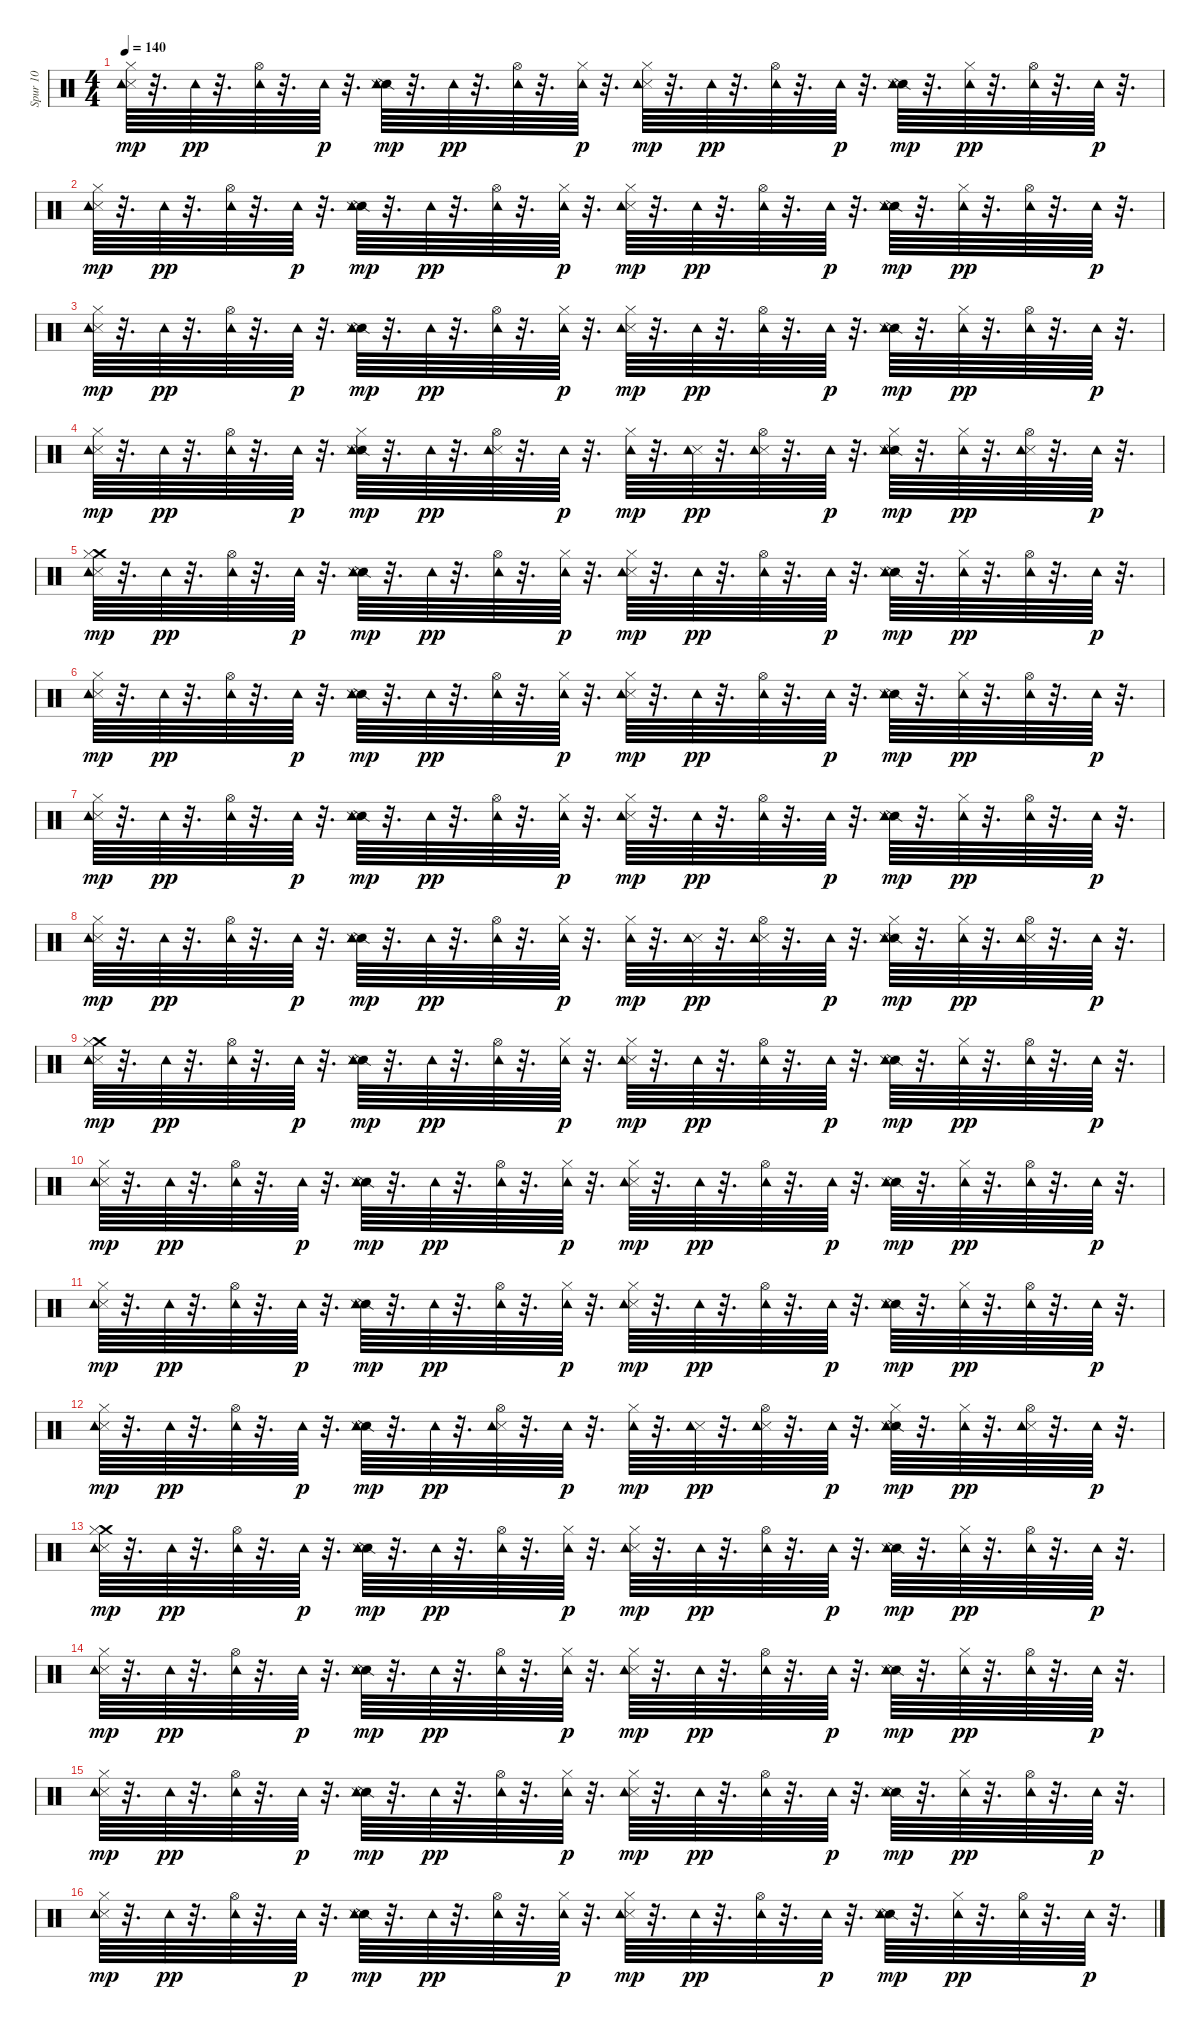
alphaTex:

\track ("Spur 10" "Spur 10") {instrument percussion}
\staff {score}
\articulation defaults
\ts (4 4)
\tempo 140
\clef neutral
\ks c
("Metronome (hit)" "Hi-Hat (closed)" "Tambourine (hit)").64{dy mp} r.32{d} "Tambourine (hit)".64{dy pp} r.32{d} ("Hi-Hat (open)" "Tambourine (hit)").64 r.32{d} "Tambourine (hit)".64{dy p} r.32{d} ("Snare (side stick) 2" "Metronome (hit)" "Tambourine (hit)").64{dy mp} r.32{d} "Tambourine (hit)".64{dy pp} r.32{d} ("Hi-Hat (open)" "Tambourine (hit)").64 r.32{d} ("Hi-Hat (closed)" "Tambourine (hit)").64{dy p} r.32{d} ("Metronome (hit)" "Hi-Hat (closed)" "Tambourine (hit)").64{dy mp} r.32{d} "Tambourine (hit)".64{dy pp} r.32{d} ("Hi-Hat (open)" "Tambourine (hit)").64 r.32{d} "Tambourine (hit)".64{dy p} r.32{d} ("Snare (side stick) 2" "Metronome (hit)" "Tambourine (hit)").64{dy mp} r.32{d} ("Hi-Hat (closed)" "Tambourine (hit)").64{dy pp} r.32{d} ("Hi-Hat (open)" "Tambourine (hit)").64 r.32{d} "Tambourine (hit)".64{dy p} r.32{d} |
("Metronome (hit)" "Hi-Hat (closed)" "Tambourine (hit)").64{dy mp} r.32{d} "Tambourine (hit)".64{dy pp} r.32{d} ("Hi-Hat (open)" "Tambourine (hit)").64 r.32{d} "Tambourine (hit)".64{dy p} r.32{d} ("Snare (side stick) 2" "Metronome (hit)" "Tambourine (hit)").64{dy mp} r.32{d} "Tambourine (hit)".64{dy pp} r.32{d} ("Hi-Hat (open)" "Tambourine (hit)").64 r.32{d} ("Hi-Hat (closed)" "Tambourine (hit)").64{dy p} r.32{d} ("Metronome (hit)" "Hi-Hat (closed)" "Tambourine (hit)").64{dy mp} r.32{d} "Tambourine (hit)".64{dy pp} r.32{d} ("Hi-Hat (open)" "Tambourine (hit)").64 r.32{d} "Tambourine (hit)".64{dy p} r.32{d} ("Snare (side stick) 2" "Metronome (hit)" "Tambourine (hit)").64{dy mp} r.32{d} ("Hi-Hat (closed)" "Tambourine (hit)").64{dy pp} r.32{d} ("Hi-Hat (open)" "Tambourine (hit)").64 r.32{d} "Tambourine (hit)".64{dy p} r.32{d} |
("Metronome (hit)" "Hi-Hat (closed)" "Tambourine (hit)").64{dy mp} r.32{d} "Tambourine (hit)".64{dy pp} r.32{d} ("Hi-Hat (open)" "Tambourine (hit)").64 r.32{d} "Tambourine (hit)".64{dy p} r.32{d} ("Snare (side stick) 2" "Metronome (hit)" "Tambourine (hit)").64{dy mp} r.32{d} "Tambourine (hit)".64{dy pp} r.32{d} ("Hi-Hat (open)" "Tambourine (hit)").64 r.32{d} ("Hi-Hat (closed)" "Tambourine (hit)").64{dy p} r.32{d} ("Metronome (hit)" "Hi-Hat (closed)" "Tambourine (hit)").64{dy mp} r.32{d} "Tambourine (hit)".64{dy pp} r.32{d} ("Hi-Hat (open)" "Tambourine (hit)").64 r.32{d} "Tambourine (hit)".64{dy p} r.32{d} ("Snare (side stick) 2" "Metronome (hit)" "Tambourine (hit)").64{dy mp} r.32{d} ("Hi-Hat (closed)" "Tambourine (hit)").64{dy pp} r.32{d} ("Hi-Hat (open)" "Tambourine (hit)").64 r.32{d} "Tambourine (hit)".64{dy p} r.32{d} |
("Metronome (hit)" "Hi-Hat (closed)" "Tambourine (hit)").64{dy mp} r.32{d} "Tambourine (hit)".64{dy pp} r.32{d} ("Hi-Hat (open)" "Tambourine (hit)").64 r.32{d} "Tambourine (hit)".64{dy p} r.32{d} ("Snare (side stick) 2" "Metronome (hit)" "Hi-Hat (closed)" "Tambourine (hit)").64{dy mp} r.32{d} "Tambourine (hit)".64{dy pp} r.32{d} ("Metronome (hit)" "Hi-Hat (open)" "Tambourine (hit)").64 r.32{d} "Tambourine (hit)".64{dy p} r.32{d} ("Hi-Hat (closed)" "Tambourine (hit)").64{dy mp} r.32{d} ("Metronome (hit)" "Tambourine (hit)").64{dy pp} r.32{d} ("Metronome (hit)" "Hi-Hat (open)" "Tambourine (hit)").64 r.32{d} "Tambourine (hit)".64{dy p} r.32{d} ("Snare (side stick) 2" "Metronome (hit)" "Hi-Hat (closed)" "Tambourine (hit)").64{dy mp} r.32{d} ("Hi-Hat (closed)" "Tambourine (hit)").64{dy pp} r.32{d} ("Metronome (hit)" "Hi-Hat (open)" "Tambourine (hit)").64 r.32{d} "Tambourine (hit)".64{dy p} r.32{d} |
("Crash medium (hit)" "Metronome (hit)" "Hi-Hat (closed)" "Tambourine (hit)").64{dy mp} r.32{d} "Tambourine (hit)".64{dy pp} r.32{d} ("Hi-Hat (open)" "Tambourine (hit)").64 r.32{d} "Tambourine (hit)".64{dy p} r.32{d} ("Snare (side stick) 2" "Metronome (hit)" "Tambourine (hit)").64{dy mp} r.32{d} "Tambourine (hit)".64{dy pp} r.32{d} ("Hi-Hat (open)" "Tambourine (hit)").64 r.32{d} ("Hi-Hat (closed)" "Tambourine (hit)").64{dy p} r.32{d} ("Metronome (hit)" "Hi-Hat (closed)" "Tambourine (hit)").64{dy mp} r.32{d} "Tambourine (hit)".64{dy pp} r.32{d} ("Hi-Hat (open)" "Tambourine (hit)").64 r.32{d} "Tambourine (hit)".64{dy p} r.32{d} ("Snare (side stick) 2" "Metronome (hit)" "Tambourine (hit)").64{dy mp} r.32{d} ("Hi-Hat (closed)" "Tambourine (hit)").64{dy pp} r.32{d} ("Hi-Hat (open)" "Tambourine (hit)").64 r.32{d} "Tambourine (hit)".64{dy p} r.32{d} |
("Metronome (hit)" "Hi-Hat (closed)" "Tambourine (hit)").64{dy mp} r.32{d} "Tambourine (hit)".64{dy pp} r.32{d} ("Hi-Hat (open)" "Tambourine (hit)").64 r.32{d} "Tambourine (hit)".64{dy p} r.32{d} ("Snare (side stick) 2" "Metronome (hit)" "Tambourine (hit)").64{dy mp} r.32{d} "Tambourine (hit)".64{dy pp} r.32{d} ("Hi-Hat (open)" "Tambourine (hit)").64 r.32{d} ("Hi-Hat (closed)" "Tambourine (hit)").64{dy p} r.32{d} ("Metronome (hit)" "Hi-Hat (closed)" "Tambourine (hit)").64{dy mp} r.32{d} "Tambourine (hit)".64{dy pp} r.32{d} ("Hi-Hat (open)" "Tambourine (hit)").64 r.32{d} "Tambourine (hit)".64{dy p} r.32{d} ("Snare (side stick) 2" "Metronome (hit)" "Tambourine (hit)").64{dy mp} r.32{d} ("Hi-Hat (closed)" "Tambourine (hit)").64{dy pp} r.32{d} ("Hi-Hat (open)" "Tambourine (hit)").64 r.32{d} "Tambourine (hit)".64{dy p} r.32{d} |
("Metronome (hit)" "Hi-Hat (closed)" "Tambourine (hit)").64{dy mp} r.32{d} "Tambourine (hit)".64{dy pp} r.32{d} ("Hi-Hat (open)" "Tambourine (hit)").64 r.32{d} "Tambourine (hit)".64{dy p} r.32{d} ("Snare (side stick) 2" "Metronome (hit)" "Tambourine (hit)").64{dy mp} r.32{d} "Tambourine (hit)".64{dy pp} r.32{d} ("Hi-Hat (open)" "Tambourine (hit)").64 r.32{d} ("Hi-Hat (closed)" "Tambourine (hit)").64{dy p} r.32{d} ("Metronome (hit)" "Hi-Hat (closed)" "Tambourine (hit)").64{dy mp} r.32{d} "Tambourine (hit)".64{dy pp} r.32{d} ("Hi-Hat (open)" "Tambourine (hit)").64 r.32{d} "Tambourine (hit)".64{dy p} r.32{d} ("Snare (side stick) 2" "Metronome (hit)" "Tambourine (hit)").64{dy mp} r.32{d} ("Hi-Hat (closed)" "Tambourine (hit)").64{dy pp} r.32{d} ("Hi-Hat (open)" "Tambourine (hit)").64 r.32{d} "Tambourine (hit)".64{dy p} r.32{d} |
("Metronome (hit)" "Hi-Hat (closed)" "Tambourine (hit)").64{dy mp} r.32{d} "Tambourine (hit)".64{dy pp} r.32{d} ("Hi-Hat (open)" "Tambourine (hit)").64 r.32{d} "Tambourine (hit)".64{dy p} r.32{d} ("Snare (side stick) 2" "Metronome (hit)" "Tambourine (hit)").64{dy mp} r.32{d} "Tambourine (hit)".64{dy pp} r.32{d} ("Hi-Hat (open)" "Tambourine (hit)").64 r.32{d} ("Hi-Hat (closed)" "Tambourine (hit)").64{dy p} r.32{d} ("Hi-Hat (closed)" "Tambourine (hit)").64{dy mp} r.32{d} ("Metronome (hit)" "Tambourine (hit)").64{dy pp} r.32{d} ("Metronome (hit)" "Hi-Hat (open)" "Tambourine (hit)").64 r.32{d} "Tambourine (hit)".64{dy p} r.32{d} ("Snare (side stick) 2" "Metronome (hit)" "Hi-Hat (closed)" "Tambourine (hit)").64{dy mp} r.32{d} ("Hi-Hat (closed)" "Tambourine (hit)").64{dy pp} r.32{d} ("Metronome (hit)" "Hi-Hat (open)" "Tambourine (hit)").64 r.32{d} "Tambourine (hit)".64{dy p} r.32{d} |
("Crash medium (hit)" "Metronome (hit)" "Hi-Hat (closed)" "Tambourine (hit)").64{dy mp} r.32{d} "Tambourine (hit)".64{dy pp} r.32{d} ("Hi-Hat (open)" "Tambourine (hit)").64 r.32{d} "Tambourine (hit)".64{dy p} r.32{d} ("Snare (side stick) 2" "Metronome (hit)" "Tambourine (hit)").64{dy mp} r.32{d} "Tambourine (hit)".64{dy pp} r.32{d} ("Hi-Hat (open)" "Tambourine (hit)").64 r.32{d} ("Hi-Hat (closed)" "Tambourine (hit)").64{dy p} r.32{d} ("Metronome (hit)" "Hi-Hat (closed)" "Tambourine (hit)").64{dy mp} r.32{d} "Tambourine (hit)".64{dy pp} r.32{d} ("Hi-Hat (open)" "Tambourine (hit)").64 r.32{d} "Tambourine (hit)".64{dy p} r.32{d} ("Snare (side stick) 2" "Metronome (hit)" "Tambourine (hit)").64{dy mp} r.32{d} ("Hi-Hat (closed)" "Tambourine (hit)").64{dy pp} r.32{d} ("Hi-Hat (open)" "Tambourine (hit)").64 r.32{d} "Tambourine (hit)".64{dy p} r.32{d} |
("Metronome (hit)" "Hi-Hat (closed)" "Tambourine (hit)").64{dy mp} r.32{d} "Tambourine (hit)".64{dy pp} r.32{d} ("Hi-Hat (open)" "Tambourine (hit)").64 r.32{d} "Tambourine (hit)".64{dy p} r.32{d} ("Snare (side stick) 2" "Metronome (hit)" "Tambourine (hit)").64{dy mp} r.32{d} "Tambourine (hit)".64{dy pp} r.32{d} ("Hi-Hat (open)" "Tambourine (hit)").64 r.32{d} ("Hi-Hat (closed)" "Tambourine (hit)").64{dy p} r.32{d} ("Metronome (hit)" "Hi-Hat (closed)" "Tambourine (hit)").64{dy mp} r.32{d} "Tambourine (hit)".64{dy pp} r.32{d} ("Hi-Hat (open)" "Tambourine (hit)").64 r.32{d} "Tambourine (hit)".64{dy p} r.32{d} ("Snare (side stick) 2" "Metronome (hit)" "Tambourine (hit)").64{dy mp} r.32{d} ("Hi-Hat (closed)" "Tambourine (hit)").64{dy pp} r.32{d} ("Hi-Hat (open)" "Tambourine (hit)").64 r.32{d} "Tambourine (hit)".64{dy p} r.32{d} |
("Metronome (hit)" "Hi-Hat (closed)" "Tambourine (hit)").64{dy mp} r.32{d} "Tambourine (hit)".64{dy pp} r.32{d} ("Hi-Hat (open)" "Tambourine (hit)").64 r.32{d} "Tambourine (hit)".64{dy p} r.32{d} ("Snare (side stick) 2" "Metronome (hit)" "Tambourine (hit)").64{dy mp} r.32{d} "Tambourine (hit)".64{dy pp} r.32{d} ("Hi-Hat (open)" "Tambourine (hit)").64 r.32{d} ("Hi-Hat (closed)" "Tambourine (hit)").64{dy p} r.32{d} ("Metronome (hit)" "Hi-Hat (closed)" "Tambourine (hit)").64{dy mp} r.32{d} "Tambourine (hit)".64{dy pp} r.32{d} ("Hi-Hat (open)" "Tambourine (hit)").64 r.32{d} "Tambourine (hit)".64{dy p} r.32{d} ("Snare (side stick) 2" "Metronome (hit)" "Tambourine (hit)").64{dy mp} r.32{d} ("Hi-Hat (closed)" "Tambourine (hit)").64{dy pp} r.32{d} ("Hi-Hat (open)" "Tambourine (hit)").64 r.32{d} "Tambourine (hit)".64{dy p} r.32{d} |
("Metronome (hit)" "Hi-Hat (closed)" "Tambourine (hit)").64{dy mp} r.32{d} "Tambourine (hit)".64{dy pp} r.32{d} ("Hi-Hat (open)" "Tambourine (hit)").64 r.32{d} "Tambourine (hit)".64{dy p} r.32{d} ("Snare (side stick) 2" "Metronome (hit)" "Tambourine (hit)").64{dy mp} r.32{d} "Tambourine (hit)".64{dy pp} r.32{d} ("Metronome (hit)" "Hi-Hat (open)" "Tambourine (hit)").64 r.32{d} "Tambourine (hit)".64{dy p} r.32{d} ("Hi-Hat (closed)" "Tambourine (hit)").64{dy mp} r.32{d} ("Metronome (hit)" "Tambourine (hit)").64{dy pp} r.32{d} ("Metronome (hit)" "Hi-Hat (open)" "Tambourine (hit)").64 r.32{d} "Tambourine (hit)".64{dy p} r.32{d} ("Snare (side stick) 2" "Metronome (hit)" "Hi-Hat (closed)" "Tambourine (hit)").64{dy mp} r.32{d} ("Hi-Hat (closed)" "Tambourine (hit)").64{dy pp} r.32{d} ("Metronome (hit)" "Hi-Hat (open)" "Tambourine (hit)").64 r.32{d} "Tambourine (hit)".64{dy p} r.32{d} |
("Crash medium (hit)" "Metronome (hit)" "Hi-Hat (closed)" "Tambourine (hit)").64{dy mp} r.32{d} "Tambourine (hit)".64{dy pp} r.32{d} ("Hi-Hat (open)" "Tambourine (hit)").64 r.32{d} "Tambourine (hit)".64{dy p} r.32{d} ("Snare (side stick) 2" "Metronome (hit)" "Tambourine (hit)").64{dy mp} r.32{d} "Tambourine (hit)".64{dy pp} r.32{d} ("Hi-Hat (open)" "Tambourine (hit)").64 r.32{d} ("Hi-Hat (closed)" "Tambourine (hit)").64{dy p} r.32{d} ("Metronome (hit)" "Hi-Hat (closed)" "Tambourine (hit)").64{dy mp} r.32{d} "Tambourine (hit)".64{dy pp} r.32{d} ("Hi-Hat (open)" "Tambourine (hit)").64 r.32{d} "Tambourine (hit)".64{dy p} r.32{d} ("Snare (side stick) 2" "Metronome (hit)" "Tambourine (hit)").64{dy mp} r.32{d} ("Hi-Hat (closed)" "Tambourine (hit)").64{dy pp} r.32{d} ("Hi-Hat (open)" "Tambourine (hit)").64 r.32{d} "Tambourine (hit)".64{dy p} r.32{d} |
("Metronome (hit)" "Hi-Hat (closed)" "Tambourine (hit)").64{dy mp} r.32{d} "Tambourine (hit)".64{dy pp} r.32{d} ("Hi-Hat (open)" "Tambourine (hit)").64 r.32{d} "Tambourine (hit)".64{dy p} r.32{d} ("Snare (side stick) 2" "Metronome (hit)" "Tambourine (hit)").64{dy mp} r.32{d} "Tambourine (hit)".64{dy pp} r.32{d} ("Hi-Hat (open)" "Tambourine (hit)").64 r.32{d} ("Hi-Hat (closed)" "Tambourine (hit)").64{dy p} r.32{d} ("Metronome (hit)" "Hi-Hat (closed)" "Tambourine (hit)").64{dy mp} r.32{d} "Tambourine (hit)".64{dy pp} r.32{d} ("Hi-Hat (open)" "Tambourine (hit)").64 r.32{d} "Tambourine (hit)".64{dy p} r.32{d} ("Snare (side stick) 2" "Metronome (hit)" "Tambourine (hit)").64{dy mp} r.32{d} ("Hi-Hat (closed)" "Tambourine (hit)").64{dy pp} r.32{d} ("Hi-Hat (open)" "Tambourine (hit)").64 r.32{d} "Tambourine (hit)".64{dy p} r.32{d} |
("Metronome (hit)" "Hi-Hat (closed)" "Tambourine (hit)").64{dy mp} r.32{d} "Tambourine (hit)".64{dy pp} r.32{d} ("Hi-Hat (open)" "Tambourine (hit)").64 r.32{d} "Tambourine (hit)".64{dy p} r.32{d} ("Snare (side stick) 2" "Metronome (hit)" "Tambourine (hit)").64{dy mp} r.32{d} "Tambourine (hit)".64{dy pp} r.32{d} ("Hi-Hat (open)" "Tambourine (hit)").64 r.32{d} ("Hi-Hat (closed)" "Tambourine (hit)").64{dy p} r.32{d} ("Metronome (hit)" "Hi-Hat (closed)" "Tambourine (hit)").64{dy mp} r.32{d} "Tambourine (hit)".64{dy pp} r.32{d} ("Hi-Hat (open)" "Tambourine (hit)").64 r.32{d} "Tambourine (hit)".64{dy p} r.32{d} ("Snare (side stick) 2" "Metronome (hit)" "Tambourine (hit)").64{dy mp} r.32{d} ("Hi-Hat (closed)" "Tambourine (hit)").64{dy pp} r.32{d} ("Hi-Hat (open)" "Tambourine (hit)").64 r.32{d} "Tambourine (hit)".64{dy p} r.32{d} |
("Metronome (hit)" "Hi-Hat (closed)" "Tambourine (hit)").64{dy mp} r.32{d} "Tambourine (hit)".64{dy pp} r.32{d} ("Hi-Hat (open)" "Tambourine (hit)").64 r.32{d} "Tambourine (hit)".64{dy p} r.32{d} ("Snare (side stick) 2" "Metronome (hit)" "Tambourine (hit)").64{dy mp} r.32{d} "Tambourine (hit)".64{dy pp} r.32{d} ("Hi-Hat (open)" "Tambourine (hit)").64 r.32{d} ("Hi-Hat (closed)" "Tambourine (hit)").64{dy p} r.32{d} ("Metronome (hit)" "Hi-Hat (closed)" "Tambourine (hit)").64{dy mp} r.32{d} "Tambourine (hit)".64{dy pp} r.32{d} ("Hi-Hat (open)" "Tambourine (hit)").64 r.32{d} "Tambourine (hit)".64{dy p} r.32{d} ("Snare (side stick) 2" "Metronome (hit)" "Tambourine (hit)").64{dy mp} r.32{d} ("Hi-Hat (closed)" "Tambourine (hit)").64{dy pp} r.32{d} ("Hi-Hat (open)" "Tambourine (hit)").64 r.32{d} "Tambourine (hit)".64{dy p} r.32{d}
